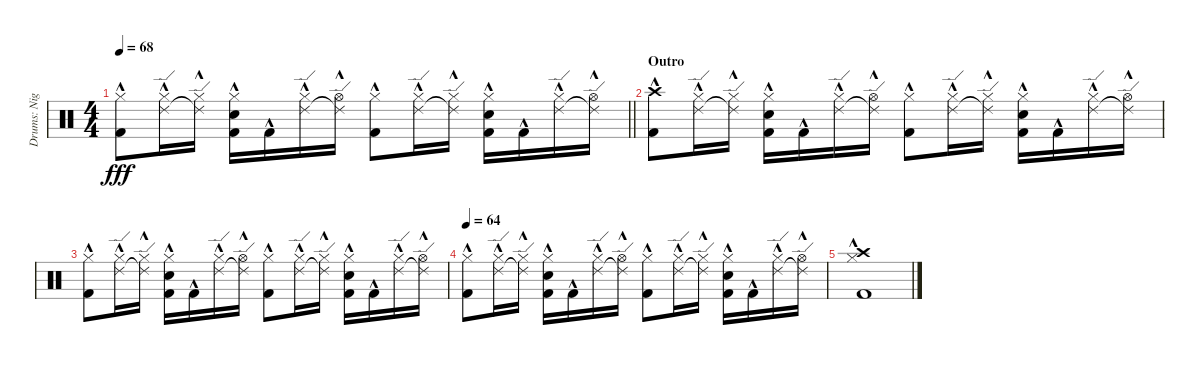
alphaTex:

\track ("Drums: Nigel" "Drums: Nig") {instrument percussion}
\staff {score}
\articulation defaults
\ts (4 4)
\tempo 68
\clef neutral
\barLineRight lightlight
\ks c
("Hi-Hat (closed)"{hac} "Kick (hit) 2"{hac}).8{dy fff} ("Ride (edge) 2"{hac} "Hi-Hat (closed)"{hac}).16 ("Ride (edge) 2"{t} "Hi-Hat (closed)"{hac}).16 ("Hi-Hat (closed)"{hac} "Electric Snare (hit)"{hac} "Kick (hit) 2"{hac}).16 "Kick (hit) 2"{hac}.16 ("Ride (edge) 2"{hac} "Hi-Hat (closed)"{hac}).16 ("Ride (edge) 2"{t} "Hi-Hat (open)"{hac}).16 ("Hi-Hat (closed)"{hac} "Kick (hit) 2"{hac}).8 ("Ride (edge) 2"{hac} "Hi-Hat (closed)"{hac}).16 ("Ride (edge) 2"{t} "Hi-Hat (closed)"{hac}).16 ("Hi-Hat (closed)"{hac} "Electric Snare (hit)"{hac} "Kick (hit) 2"{hac}).16 "Kick (hit) 2"{hac}.16 ("Ride (edge) 2"{hac} "Hi-Hat (closed)"{hac}).16 ("Ride (edge) 2"{t} "Hi-Hat (open)"{hac}).16 |
\section ("" "Outro")
("Crash high (hit)"{hac} "Kick (hit) 2"{hac}).8 ("Ride (edge) 2"{hac} "Hi-Hat (closed)"{hac}).16 ("Ride (edge) 2"{t} "Hi-Hat (closed)"{hac}).16 ("Hi-Hat (closed)"{hac} "Electric Snare (hit)"{hac} "Kick (hit) 2"{hac}).16 "Kick (hit) 2"{hac}.16 ("Ride (edge) 2"{hac} "Hi-Hat (closed)"{hac}).16 ("Ride (edge) 2"{t} "Hi-Hat (open)"{hac}).16 ("Hi-Hat (closed)"{hac} "Kick (hit) 2"{hac}).8 ("Ride (edge) 2"{hac} "Hi-Hat (closed)"{hac}).16 ("Ride (edge) 2"{t} "Hi-Hat (closed)"{hac}).16 ("Hi-Hat (closed)"{hac} "Electric Snare (hit)"{hac} "Kick (hit) 2"{hac}).16 "Kick (hit) 2"{hac}.16 ("Ride (edge) 2"{hac} "Hi-Hat (closed)"{hac}).16 ("Ride (edge) 2"{t} "Hi-Hat (open)"{hac}).16 |
("Hi-Hat (closed)"{hac} "Kick (hit) 2"{hac}).8 ("Ride (edge) 2"{hac} "Hi-Hat (closed)"{hac}).16 ("Ride (edge) 2"{t} "Hi-Hat (closed)"{hac}).16 ("Hi-Hat (closed)"{hac} "Electric Snare (hit)"{hac} "Kick (hit) 2"{hac}).16 "Kick (hit) 2"{hac}.16 ("Ride (edge) 2"{hac} "Hi-Hat (closed)"{hac}).16 ("Ride (edge) 2"{t} "Hi-Hat (open)"{hac}).16 ("Hi-Hat (closed)"{hac} "Kick (hit) 2"{hac}).8 ("Ride (edge) 2"{hac} "Hi-Hat (closed)"{hac}).16 ("Ride (edge) 2"{t} "Hi-Hat (closed)"{hac}).16 ("Hi-Hat (closed)"{hac} "Electric Snare (hit)"{hac} "Kick (hit) 2"{hac}).16 "Kick (hit) 2"{hac}.16 ("Ride (edge) 2"{hac} "Hi-Hat (closed)"{hac}).16 ("Ride (edge) 2"{t} "Hi-Hat (open)"{hac}).16 |
\tempo 64
("Hi-Hat (closed)"{hac} "Kick (hit) 2"{hac}).8 ("Ride (edge) 2"{hac} "Hi-Hat (closed)"{hac}).16 ("Ride (edge) 2"{t} "Hi-Hat (closed)"{hac}).16 ("Hi-Hat (closed)"{hac} "Electric Snare (hit)"{hac} "Kick (hit) 2"{hac}).16 "Kick (hit) 2"{hac}.16 ("Ride (edge) 2"{hac} "Hi-Hat (closed)"{hac}).16 ("Ride (edge) 2"{t} "Hi-Hat (open)"{hac}).16 ("Hi-Hat (closed)"{hac} "Kick (hit) 2"{hac}).8 ("Ride (edge) 2"{hac} "Hi-Hat (closed)"{hac}).16 ("Ride (edge) 2"{t} "Hi-Hat (closed)"{hac}).16 ("Hi-Hat (closed)"{hac} "Electric Snare (hit)"{hac} "Kick (hit) 2"{hac}).16 "Kick (hit) 2"{hac}.16 ("Ride (edge) 2"{hac} "Hi-Hat (closed)"{hac}).16 ("Ride (edge) 2"{t} "Hi-Hat (open)"{hac}).16 |
("Crash high (hit)"{hac} "Hi-Hat (closed)"{hac} "Kick (hit) 2"{hac}).1
